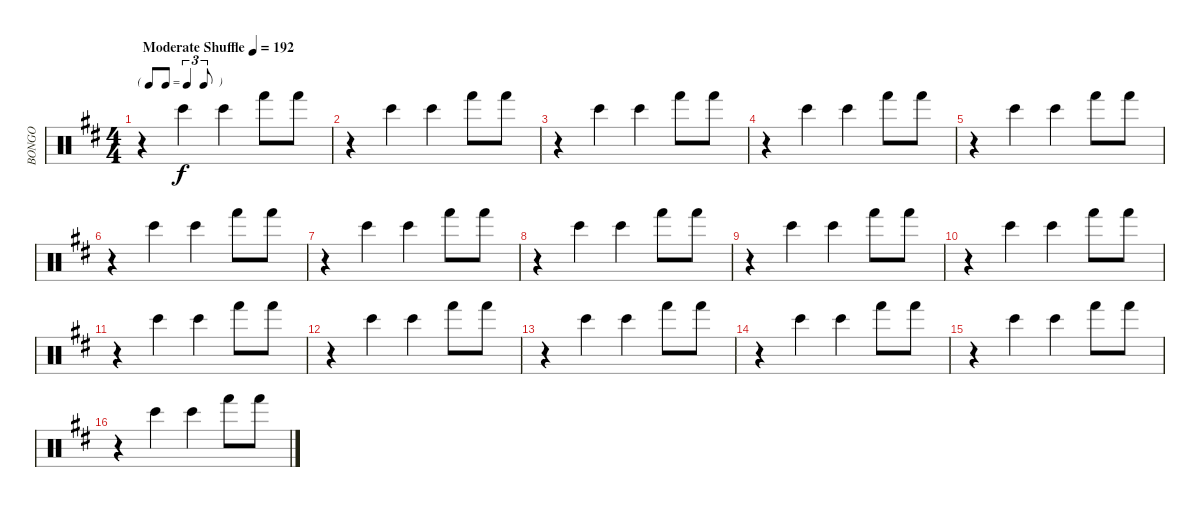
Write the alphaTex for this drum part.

\track ("BONGO" "BONGO") {instrument percussion}
\staff {score}
\articulation defaults
\ts (4 4)
\tf triplet8th
\tempo (192 "Moderate Shuffle")
\clef neutral
\ks d
r.4{dy f} "Bongo High (hit)".4 "Bongo High (hit)".4 "Hand (hit)".8 "Hand (hit)".8 |
r.4 "Bongo High (hit)".4 "Bongo High (hit)".4 "Hand (hit)".8 "Hand (hit)".8 |
r.4 "Bongo High (hit)".4 "Bongo High (hit)".4 "Hand (hit)".8 "Hand (hit)".8 |
r.4 "Bongo High (hit)".4 "Bongo High (hit)".4 "Hand (hit)".8 "Hand (hit)".8 |
r.4 "Bongo High (hit)".4 "Bongo High (hit)".4 "Hand (hit)".8 "Hand (hit)".8 |
r.4 "Bongo High (hit)".4 "Bongo High (hit)".4 "Hand (hit)".8 "Hand (hit)".8 |
r.4 "Bongo High (hit)".4 "Bongo High (hit)".4 "Hand (hit)".8 "Hand (hit)".8 |
r.4 "Bongo High (hit)".4 "Bongo High (hit)".4 "Hand (hit)".8 "Hand (hit)".8 |
r.4 "Bongo High (hit)".4 "Bongo High (hit)".4 "Hand (hit)".8 "Hand (hit)".8 |
r.4 "Bongo High (hit)".4 "Bongo High (hit)".4 "Hand (hit)".8 "Hand (hit)".8 |
r.4 "Bongo High (hit)".4 "Bongo High (hit)".4 "Hand (hit)".8 "Hand (hit)".8 |
r.4 "Bongo High (hit)".4 "Bongo High (hit)".4 "Hand (hit)".8 "Hand (hit)".8 |
r.4 "Bongo High (hit)".4 "Bongo High (hit)".4 "Hand (hit)".8 "Hand (hit)".8 |
r.4 "Bongo High (hit)".4 "Bongo High (hit)".4 "Hand (hit)".8 "Hand (hit)".8 |
r.4 "Bongo High (hit)".4 "Bongo High (hit)".4 "Hand (hit)".8 "Hand (hit)".8 |
r.4 "Bongo High (hit)".4 "Bongo High (hit)".4 "Hand (hit)".8 "Hand (hit)".8
